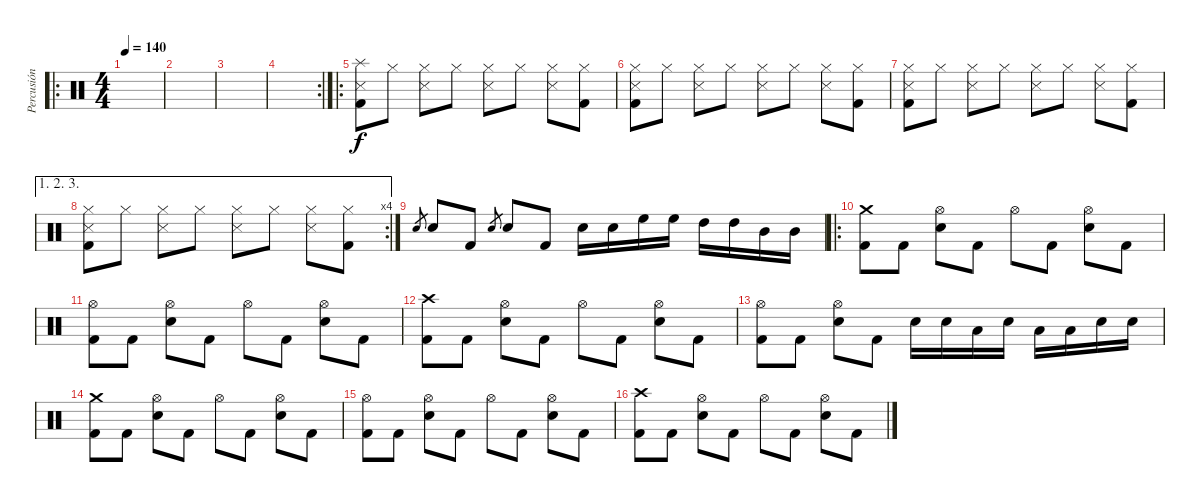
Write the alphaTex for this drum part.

\track ("Percusión" "Percusión") {instrument percussion}
\staff {score}
\articulation defaults
\ro
\ts (4 4)
\tempo 140
\clef neutral
\ks c
|
|
|
\rc 2
|
\ro
("Splash (hit)" "Snare (side stick) 3" "Kick (hit) 2").8 "Hi-Hat (closed)".8 ("Hi-Hat (closed)" "Snare (side stick) 3").8 "Hi-Hat (closed)".8 ("Hi-Hat (closed)" "Snare (side stick) 3").8 "Hi-Hat (closed)".8 ("Hi-Hat (closed)" "Snare (side stick) 3").8 ("Hi-Hat (closed)" "Kick (hit) 2").8 |
("Hi-Hat (closed)" "Snare (side stick) 3" "Kick (hit) 2").8 "Hi-Hat (closed)".8 ("Hi-Hat (closed)" "Snare (side stick) 3").8 "Hi-Hat (closed)".8 ("Hi-Hat (closed)" "Snare (side stick) 3").8 "Hi-Hat (closed)".8 ("Hi-Hat (closed)" "Snare (side stick) 3").8 ("Hi-Hat (closed)" "Kick (hit) 2").8 |
("Hi-Hat (closed)" "Snare (side stick) 3" "Kick (hit) 2").8 "Hi-Hat (closed)".8 ("Hi-Hat (closed)" "Snare (side stick) 3").8 "Hi-Hat (closed)".8 ("Hi-Hat (closed)" "Snare (side stick) 3").8 "Hi-Hat (closed)".8 ("Hi-Hat (closed)" "Snare (side stick) 3").8 ("Hi-Hat (closed)" "Kick (hit) 2").8 |
\ae (1 2 3)
\rc 4
("Hi-Hat (closed)" "Snare (side stick) 3" "Kick (hit) 2").8 "Hi-Hat (closed)".8 ("Hi-Hat (closed)" "Snare (side stick) 3").8 "Hi-Hat (closed)".8 ("Hi-Hat (closed)" "Snare (side stick) 3").8 "Hi-Hat (closed)".8 ("Hi-Hat (closed)" "Snare (side stick) 3").8 ("Hi-Hat (closed)" "Kick (hit) 2").8 |
"Electric Snare (hit)".8{gr} "Electric Snare (hit)".8 "Kick (hit) 2".8 "Electric Snare (hit)".8{gr} "Electric Snare (hit)".8 "Kick (hit) 2".8 "Electric Snare (hit)".16 "Electric Snare (hit)".16 "High Floor Tom (hit)".16 "High Floor Tom (hit)".16 "High Tom (hit)".16 "High Tom (hit)".16 "Mid Tom (hit)".16 "Mid Tom (hit)".16 |
\ro
("Crash medium (hit)" "Kick (hit) 2").8 "Kick (hit) 2".8 ("Hi-Hat (open)" "Electric Snare (hit)").8 "Kick (hit) 2".8 "Hi-Hat (open)".8 "Kick (hit) 2".8 ("Hi-Hat (open)" "Electric Snare (hit)").8 "Kick (hit) 2".8 |
("Hi-Hat (open)" "Kick (hit) 2").8 "Kick (hit) 2".8 ("Hi-Hat (open)" "Electric Snare (hit)").8 "Kick (hit) 2".8 "Hi-Hat (open)".8 "Kick (hit) 2".8 ("Hi-Hat (open)" "Electric Snare (hit)").8 "Kick (hit) 2".8 |
("Crash high (hit)" "Kick (hit) 2").8 "Kick (hit) 2".8 ("Hi-Hat (open)" "Electric Snare (hit)").8 "Kick (hit) 2".8 "Hi-Hat (open)".8 "Kick (hit) 2".8 ("Hi-Hat (open)" "Electric Snare (hit)").8 "Kick (hit) 2".8 |
("Hi-Hat (open)" "Kick (hit) 2").8 "Kick (hit) 2".8 ("Hi-Hat (open)" "Electric Snare (hit)").8 "Kick (hit) 2".8 "Electric Snare (hit)".16 "Electric Snare (hit)".16 "Low Tom (hit)".16 "Electric Snare (hit)".16 "Low Tom (hit)".16 "Low Tom (hit)".16 "Electric Snare (hit)".16 "Electric Snare (hit)".16 |
("Crash medium (hit)" "Kick (hit) 2").8 "Kick (hit) 2".8 ("Hi-Hat (open)" "Electric Snare (hit)").8 "Kick (hit) 2".8 "Hi-Hat (open)".8 "Kick (hit) 2".8 ("Hi-Hat (open)" "Electric Snare (hit)").8 "Kick (hit) 2".8 |
("Hi-Hat (open)" "Kick (hit) 2").8 "Kick (hit) 2".8 ("Hi-Hat (open)" "Electric Snare (hit)").8 "Kick (hit) 2".8 "Hi-Hat (open)".8 "Kick (hit) 2".8 ("Hi-Hat (open)" "Electric Snare (hit)").8 "Kick (hit) 2".8 |
("Crash high (hit)" "Kick (hit) 2").8 "Kick (hit) 2".8 ("Hi-Hat (open)" "Electric Snare (hit)").8 "Kick (hit) 2".8 "Hi-Hat (open)".8 "Kick (hit) 2".8 ("Hi-Hat (open)" "Electric Snare (hit)").8 "Kick (hit) 2".8
